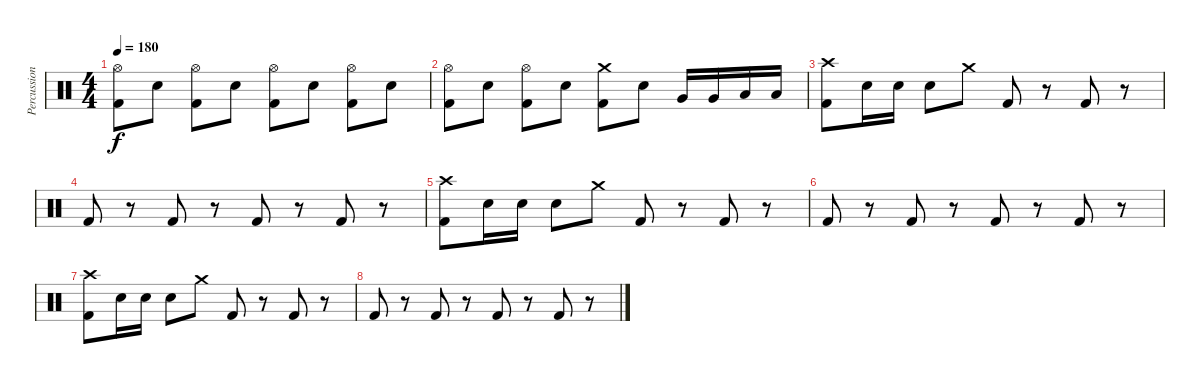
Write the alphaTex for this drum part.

\track ("Percussion" "Percussion") {instrument percussion}
\staff {score}
\articulation defaults
\ts (4 4)
\tempo 180
\clef neutral
\ks c
("Hi-Hat (open)" "Kick (hit) 2").8{dy f} "Snare (hit) 2".8 ("Hi-Hat (open)" "Kick (hit) 2").8 "Snare (hit) 2".8 ("Hi-Hat (open)" "Kick (hit) 2").8 "Snare (hit) 2".8 ("Hi-Hat (open)" "Kick (hit) 2").8 "Snare (hit) 2".8 |
("Hi-Hat (open)" "Kick (hit) 2").8 "Snare (hit) 2".8 ("Hi-Hat (open)" "Kick (hit) 2").8 "Snare (hit) 2".8 ("Crash medium (hit)" "Kick (hit) 2").8 "Snare (hit) 2".8 "Very Low Tom (hit)".16 "Very Low Tom (hit)".16 "Low Floor Tom (hit)".16 "Low Floor Tom (hit)".16 |
("Crash high (hit)" "Kick (hit) 2").8 "Snare (hit) 2".16 "Snare (hit) 2".16 "Snare (hit) 2".8 "Crash medium (hit)".8 "Kick (hit) 2".8 r.8 "Kick (hit) 2".8 r.8 |
"Kick (hit) 2".8 r.8 "Kick (hit) 2".8 r.8 "Kick (hit) 2".8 r.8 "Kick (hit) 2".8 r.8 |
("Crash high (hit)" "Kick (hit) 2").8 "Snare (hit) 2".16 "Snare (hit) 2".16 "Snare (hit) 2".8 "Crash medium (hit)".8 "Kick (hit) 2".8 r.8 "Kick (hit) 2".8 r.8 |
"Kick (hit) 2".8 r.8 "Kick (hit) 2".8 r.8 "Kick (hit) 2".8 r.8 "Kick (hit) 2".8 r.8 |
("Crash high (hit)" "Kick (hit) 2").8 "Snare (hit) 2".16 "Snare (hit) 2".16 "Snare (hit) 2".8 "Crash medium (hit)".8 "Kick (hit) 2".8 r.8 "Kick (hit) 2".8 r.8 |
"Kick (hit) 2".8 r.8 "Kick (hit) 2".8 r.8 "Kick (hit) 2".8 r.8 "Kick (hit) 2".8 r.8
